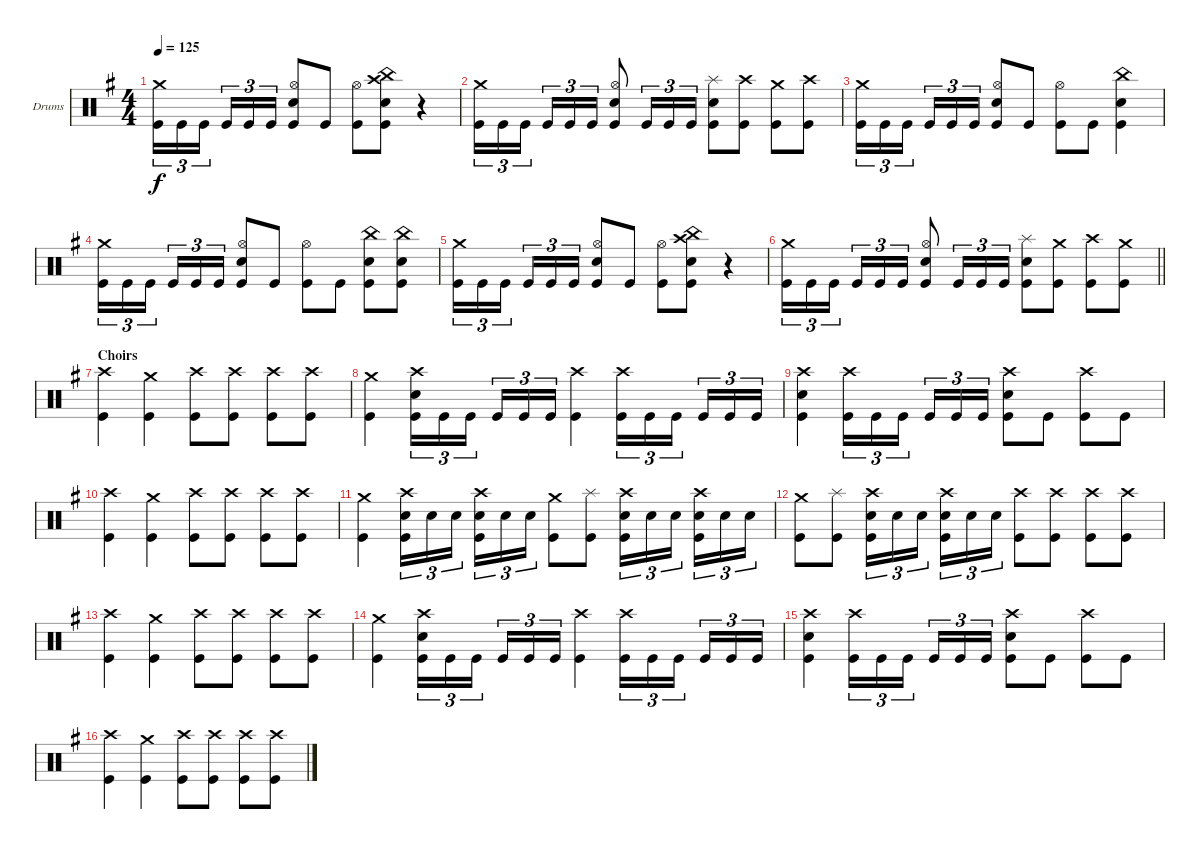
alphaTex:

\bracketExtendMode groupsimilarinstruments
\firstSystemTrackNameOrientation horizontal
\otherSystemsTrackNameOrientation horizontal
\track ("Drumkit" "Drums") {instrument percussion}
\staff {score}
\articulation defaults
\ts (4 4)
\tempo 125
\clef neutral
\scale
0.468504
\ks g
("Crash medium (hit)" "Kick (hit)").16{tu (3 2) dy f} "Kick (hit)".16{tu (3 2)} "Kick (hit)".16{tu (3 2)} "Kick (hit)".16{tu (3 2)} "Kick (hit)".16{tu (3 2)} "Kick (hit)".16{tu (3 2)} ("Hi-Hat (open)" "Snare (hit) 2" "Kick (hit)").8 "Kick (hit)".8 ("Hi-Hat (open)" "Kick (hit)").8 ("China (hit)" "Crash high (hit)" "Snare (hit) 2" "Kick (hit)").8 r.4 |
\scale
0.531496 ("Crash medium (hit)" "Kick (hit)").16{tu (3 2)} "Kick (hit)".16{tu (3 2)} "Kick (hit)".16{tu (3 2)} "Kick (hit)".16{tu (3 2)} "Kick (hit)".16{tu (3 2)} "Kick (hit)".16{tu (3 2)} ("Hi-Hat (open)" "Snare (hit) 2" "Kick (hit)").8 "Kick (hit)".16{tu (3 2)} "Kick (hit)".16{tu (3 2)} "Kick (hit)".16{tu (3 2)} ("Splash (hit)" "Snare (hit) 2" "Kick (hit)").8 ("Crash high (hit)" "Kick (hit)").8 ("Crash medium (hit)" "Kick (hit)").8 ("Crash high (hit)" "Kick (hit)").8 |
\scale
0.485714 ("Crash medium (hit)" "Kick (hit)").16{tu (3 2)} "Kick (hit)".16{tu (3 2)} "Kick (hit)".16{tu (3 2)} "Kick (hit)".16{tu (3 2)} "Kick (hit)".16{tu (3 2)} "Kick (hit)".16{tu (3 2)} ("Hi-Hat (open)" "Snare (hit) 2" "Kick (hit)").8 "Kick (hit)".8 ("Hi-Hat (open)" "Kick (hit)").8 "Kick (hit)".8 ("China (hit)" "Snare (hit) 2" "Kick (hit)").4 |
\scale
0.514286 ("Crash medium (hit)" "Kick (hit)").16{tu (3 2)} "Kick (hit)".16{tu (3 2)} "Kick (hit)".16{tu (3 2)} "Kick (hit)".16{tu (3 2)} "Kick (hit)".16{tu (3 2)} "Kick (hit)".16{tu (3 2)} ("Hi-Hat (open)" "Snare (hit) 2" "Kick (hit)").8 "Kick (hit)".8 ("Hi-Hat (open)" "Kick (hit)").8 "Kick (hit)".8 ("China (hit)" "Snare (hit) 2" "Kick (hit)").8 ("China (hit)" "Snare (hit) 2" "Kick (hit)").8 |
\scale
0.468504 ("Crash medium (hit)" "Kick (hit)").16{tu (3 2)} "Kick (hit)".16{tu (3 2)} "Kick (hit)".16{tu (3 2)} "Kick (hit)".16{tu (3 2)} "Kick (hit)".16{tu (3 2)} "Kick (hit)".16{tu (3 2)} ("Hi-Hat (open)" "Snare (hit) 2" "Kick (hit)").8 "Kick (hit)".8 ("Hi-Hat (open)" "Kick (hit)").8 ("China (hit)" "Crash high (hit)" "Snare (hit) 2" "Kick (hit)").8 r.4 |
\scale
0.531496
\barLineRight lightlight
("Crash medium (hit)" "Kick (hit)").16{tu (3 2)} "Kick (hit)".16{tu (3 2)} "Kick (hit)".16{tu (3 2)} "Kick (hit)".16{tu (3 2)} "Kick (hit)".16{tu (3 2)} "Kick (hit)".16{tu (3 2)} ("Hi-Hat (open)" "Snare (hit) 2" "Kick (hit)").8 "Kick (hit)".16{tu (3 2)} "Kick (hit)".16{tu (3 2)} "Kick (hit)".16{tu (3 2)} ("Splash (hit)" "Snare (hit) 2" "Kick (hit)").8 ("Crash medium (hit)" "Kick (hit)").8 ("Crash high (hit)" "Kick (hit)").8 ("Crash medium (hit)" "Kick (hit)").8 |
\section ("" "Choirs")
\scale
0.35 ("Crash high (hit)" "Kick (hit)").4 ("Crash medium (hit)" "Kick (hit)").4 ("Crash high (hit)" "Kick (hit)").8 ("Crash high (hit)" "Kick (hit)").8 ("Crash high (hit)" "Kick (hit)").8 ("Crash high (hit)" "Kick (hit)").8 |
\scale
0.65 ("Crash medium (hit)" "Kick (hit)").4 ("Crash high (hit)" "Snare (hit) 2" "Kick (hit)").16{tu (3 2)} "Kick (hit)".16{tu (3 2)} "Kick (hit)".16{tu (3 2)} "Kick (hit)".16{tu (3 2)} "Kick (hit)".16{tu (3 2)} "Kick (hit)".16{tu (3 2)} ("Crash high (hit)" "Kick (hit)").4 ("Crash high (hit)" "Kick (hit)").16{tu (3 2)} "Kick (hit)".16{tu (3 2)} "Kick (hit)".16{tu (3 2)} "Kick (hit)".16{tu (3 2)} "Kick (hit)".16{tu (3 2)} "Kick (hit)".16{tu (3 2)} |
\scale
0.62963 ("Crash high (hit)" "Snare (hit) 2" "Kick (hit)").4 ("Crash high (hit)" "Kick (hit)").16{tu (3 2)} "Kick (hit)".16{tu (3 2)} "Kick (hit)".16{tu (3 2)} "Kick (hit)".16{tu (3 2)} "Kick (hit)".16{tu (3 2)} "Kick (hit)".16{tu (3 2)} ("Crash high (hit)" "Snare (hit) 2" "Kick (hit)").8 "Kick (hit)".8 ("Crash high (hit)" "Kick (hit)").8 "Kick (hit)".8 |
\scale
0.37037 ("Crash high (hit)" "Kick (hit)").4 ("Crash medium (hit)" "Kick (hit)").4 ("Crash high (hit)" "Kick (hit)").8 ("Crash high (hit)" "Kick (hit)").8 ("Crash high (hit)" "Kick (hit)").8 ("Crash high (hit)" "Kick (hit)").8 |
\scale
0.520913 ("Crash medium (hit)" "Kick (hit)").4 ("Crash high (hit)" "Snare (hit) 2" "Kick (hit)").16{tu (3 2)} "Snare (hit) 2".16{tu (3 2)} "Snare (hit) 2".16{tu (3 2)} ("Crash high (hit)" "Snare (hit) 2" "Kick (hit)").16{tu (3 2)} "Snare (hit) 2".16{tu (3 2)} "Snare (hit) 2".16{tu (3 2)} ("Crash medium (hit)" "Kick (hit)").8 ("Splash (hit)" "Kick (hit)").8 ("Crash high (hit)" "Snare (hit) 2" "Kick (hit)").16{tu (3 2)} "Snare (hit) 2".16{tu (3 2)} "Snare (hit) 2".16{tu (3 2)} ("Crash high (hit)" "Snare (hit) 2" "Kick (hit)").16{tu (3 2)} "Snare (hit) 2".16{tu (3 2)} "Snare (hit) 2".16{tu (3 2)} |
\scale
0.479087 ("Crash medium (hit)" "Kick (hit)").8 ("Splash (hit)" "Kick (hit)").8 ("Crash high (hit)" "Snare (hit) 2" "Kick (hit)").16{tu (3 2)} "Snare (hit) 2".16{tu (3 2)} "Snare (hit) 2".16{tu (3 2)} ("Crash high (hit)" "Snare (hit) 2" "Kick (hit)").16{tu (3 2)} "Snare (hit) 2".16{tu (3 2)} "Snare (hit) 2".16{tu (3 2)} ("Crash high (hit)" "Kick (hit)").8 ("Crash high (hit)" "Kick (hit)").8 ("Crash high (hit)" "Kick (hit)").8 ("Crash high (hit)" "Kick (hit)").8 |
\scale
0.35 ("Crash high (hit)" "Kick (hit)").4 ("Crash medium (hit)" "Kick (hit)").4 ("Crash high (hit)" "Kick (hit)").8 ("Crash high (hit)" "Kick (hit)").8 ("Crash high (hit)" "Kick (hit)").8 ("Crash high (hit)" "Kick (hit)").8 |
\scale
0.65 ("Crash medium (hit)" "Kick (hit)").4 ("Crash high (hit)" "Snare (hit) 2" "Kick (hit)").16{tu (3 2)} "Kick (hit)".16{tu (3 2)} "Kick (hit)".16{tu (3 2)} "Kick (hit)".16{tu (3 2)} "Kick (hit)".16{tu (3 2)} "Kick (hit)".16{tu (3 2)} ("Crash high (hit)" "Kick (hit)").4 ("Crash high (hit)" "Kick (hit)").16{tu (3 2)} "Kick (hit)".16{tu (3 2)} "Kick (hit)".16{tu (3 2)} "Kick (hit)".16{tu (3 2)} "Kick (hit)".16{tu (3 2)} "Kick (hit)".16{tu (3 2)} |
\scale
0.62963 ("Crash high (hit)" "Snare (hit) 2" "Kick (hit)").4 ("Crash high (hit)" "Kick (hit)").16{tu (3 2)} "Kick (hit)".16{tu (3 2)} "Kick (hit)".16{tu (3 2)} "Kick (hit)".16{tu (3 2)} "Kick (hit)".16{tu (3 2)} "Kick (hit)".16{tu (3 2)} ("Crash high (hit)" "Snare (hit) 2" "Kick (hit)").8 "Kick (hit)".8 ("Crash high (hit)" "Kick (hit)").8 "Kick (hit)".8 |
\scale
0.37037 ("Crash high (hit)" "Kick (hit)").4 ("Crash medium (hit)" "Kick (hit)").4 ("Crash high (hit)" "Kick (hit)").8 ("Crash high (hit)" "Kick (hit)").8 ("Crash high (hit)" "Kick (hit)").8 ("Crash high (hit)" "Kick (hit)").8
